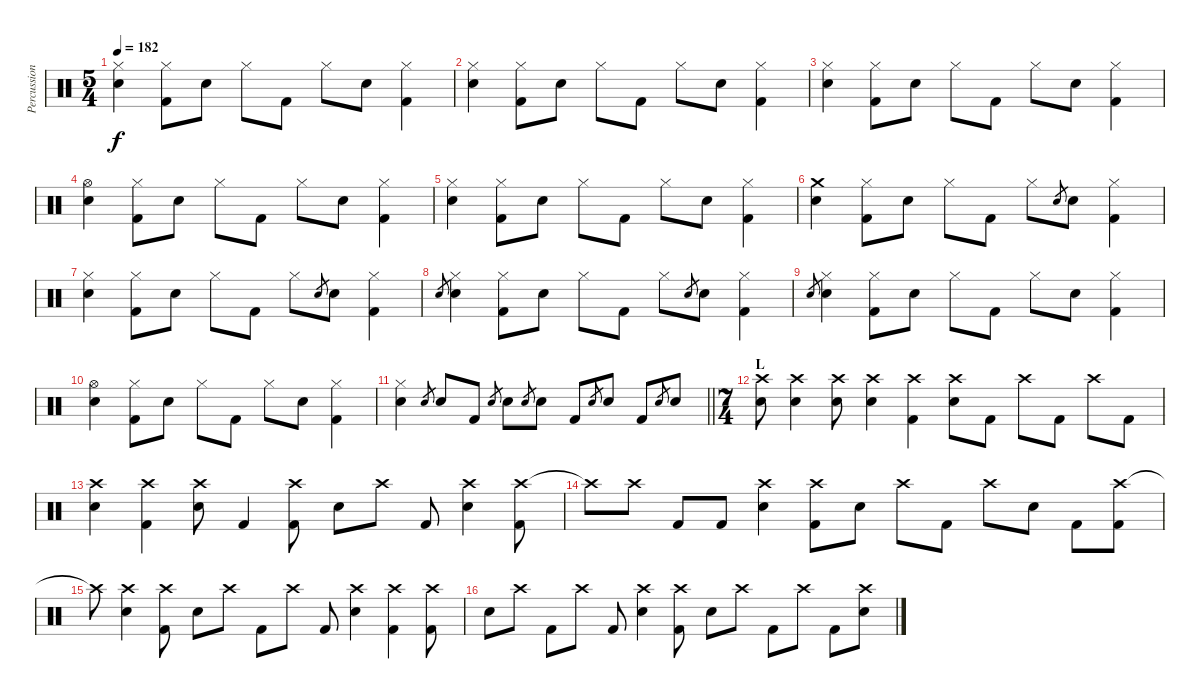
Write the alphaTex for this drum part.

\track ("Percussion" "Percussion") {instrument percussion}
\staff {score}
\articulation defaults
\ts (5 4)
\tempo 182
\clef neutral
\ks c
("Hi-Hat (closed)" "Electric Snare (hit)").4{dy f} ("Hi-Hat (closed)" "Kick (hit) 2").8 "Electric Snare (hit)".8 "Hi-Hat (closed)".8 "Kick (hit) 2".8 "Hi-Hat (closed)".8 "Electric Snare (hit)".8 ("Hi-Hat (closed)" "Kick (hit) 2").4 |
("Hi-Hat (closed)" "Electric Snare (hit)").4 ("Hi-Hat (closed)" "Kick (hit) 2").8 "Electric Snare (hit)".8 "Hi-Hat (closed)".8 "Kick (hit) 2".8 "Hi-Hat (closed)".8 "Electric Snare (hit)".8 ("Hi-Hat (closed)" "Kick (hit) 2").4 |
("Hi-Hat (closed)" "Electric Snare (hit)").4 ("Hi-Hat (closed)" "Kick (hit) 2").8 "Electric Snare (hit)".8 "Hi-Hat (closed)".8 "Kick (hit) 2".8 "Hi-Hat (closed)".8 "Electric Snare (hit)".8 ("Hi-Hat (closed)" "Kick (hit) 2").4 |
("Hi-Hat (open)" "Electric Snare (hit)").4 ("Hi-Hat (closed)" "Kick (hit) 2").8 "Electric Snare (hit)".8 "Hi-Hat (closed)".8 "Kick (hit) 2".8 "Hi-Hat (closed)".8 "Electric Snare (hit)".8 ("Hi-Hat (closed)" "Kick (hit) 2").4 |
("Hi-Hat (closed)" "Electric Snare (hit)").4 ("Hi-Hat (closed)" "Kick (hit) 2").8 "Electric Snare (hit)".8 "Hi-Hat (closed)".8 "Kick (hit) 2".8 "Hi-Hat (closed)".8 "Electric Snare (hit)".8 ("Hi-Hat (closed)" "Kick (hit) 2").4 |
("Crash medium (hit)" "Electric Snare (hit)").4 ("Hi-Hat (closed)" "Kick (hit) 2").8 "Electric Snare (hit)".8 "Hi-Hat (closed)".8 "Kick (hit) 2".8 "Hi-Hat (closed)".8 "Electric Snare (hit)".8{gr} "Electric Snare (hit)".8 ("Hi-Hat (closed)" "Kick (hit) 2").4 |
("Hi-Hat (closed)" "Electric Snare (hit)").4 ("Hi-Hat (closed)" "Kick (hit) 2").8 "Electric Snare (hit)".8 "Hi-Hat (closed)".8 "Kick (hit) 2".8 "Hi-Hat (closed)".8 "Electric Snare (hit)".8{gr} "Electric Snare (hit)".8 ("Hi-Hat (closed)" "Kick (hit) 2").4 |
"Electric Snare (hit)".8{gr} ("Hi-Hat (closed)" "Electric Snare (hit)").4 ("Hi-Hat (closed)" "Kick (hit) 2").8 "Electric Snare (hit)".8 "Hi-Hat (closed)".8 "Kick (hit) 2".8 "Hi-Hat (closed)".8 "Electric Snare (hit)".8{gr} "Electric Snare (hit)".8 ("Hi-Hat (closed)" "Kick (hit) 2").4 |
"Electric Snare (hit)".8{gr} ("Hi-Hat (closed)" "Electric Snare (hit)").4 ("Hi-Hat (closed)" "Kick (hit) 2").8 "Electric Snare (hit)".8 "Hi-Hat (closed)".8 "Kick (hit) 2".8 "Hi-Hat (closed)".8 "Electric Snare (hit)".8 ("Hi-Hat (closed)" "Kick (hit) 2").4 |
("Hi-Hat (open)" "Electric Snare (hit)").4 ("Hi-Hat (closed)" "Kick (hit) 2").8 "Electric Snare (hit)".8 "Hi-Hat (closed)".8 "Kick (hit) 2".8 "Hi-Hat (closed)".8 "Electric Snare (hit)".8 ("Hi-Hat (closed)" "Kick (hit) 2").4 |
\barLineRight lightlight
("Hi-Hat (closed)" "Electric Snare (hit)").4 "Electric Snare (hit)".8{gr} "Electric Snare (hit)".8 "Kick (hit) 2".8 "Electric Snare (hit)".8{gr} "Electric Snare (hit)".8 "Electric Snare (hit)".8{gr} "Electric Snare (hit)".8 "Kick (hit) 2".8 "Electric Snare (hit)".8{gr} "Electric Snare (hit)".8 "Kick (hit) 2".8 "Electric Snare (hit)".8{gr} "Electric Snare (hit)".8 |
\ts (7 4)
\section ("" "L")
("Crash high (hit)" "Electric Snare (hit)").8 ("Crash high (hit)" "Electric Snare (hit)").4 ("Crash high (hit)" "Electric Snare (hit)").8 ("Crash high (hit)" "Electric Snare (hit)").4 ("Crash high (hit)" "Kick (hit) 2").4 ("Crash high (hit)" "Electric Snare (hit)").8 "Kick (hit) 2".8 "Crash high (hit)".8 "Kick (hit) 2".8 "Crash high (hit)".8 "Kick (hit) 2".8 |
("Crash high (hit)" "Electric Snare (hit)").4 ("Crash high (hit)" "Kick (hit) 2").4 ("Crash high (hit)" "Electric Snare (hit)").8 "Kick (hit) 2".4 ("Crash high (hit)" "Kick (hit) 2").8 "Electric Snare (hit)".8 "Crash high (hit)".8 "Kick (hit) 2".8 ("Crash high (hit)" "Electric Snare (hit)").4 ("Crash high (hit)" "Kick (hit) 2").8 |
"Crash high (hit)"{t}.8 "Crash high (hit)".8 "Kick (hit) 2".8 "Kick (hit) 2".8 ("Crash high (hit)" "Electric Snare (hit)").4 ("Crash high (hit)" "Kick (hit) 2").8 "Electric Snare (hit)".8 "Crash high (hit)".8 "Kick (hit) 2".8 "Crash high (hit)".8 "Electric Snare (hit)".8 "Kick (hit) 2".8 ("Crash high (hit)" "Kick (hit) 2").8 |
"Crash high (hit)"{t}.8 ("Crash high (hit)" "Electric Snare (hit)").4 ("Crash high (hit)" "Kick (hit) 2").8 "Electric Snare (hit)".8 "Crash high (hit)".8 "Kick (hit) 2".8 "Crash high (hit)".8 "Kick (hit) 2".8 ("Crash high (hit)" "Electric Snare (hit)").4 ("Crash high (hit)" "Kick (hit) 2").4 ("Crash high (hit)" "Kick (hit) 2").8 |
"Electric Snare (hit)".8 "Crash high (hit)".8 "Kick (hit) 2".8 "Crash high (hit)".8 "Kick (hit) 2".8 ("Crash high (hit)" "Electric Snare (hit)").4 ("Crash high (hit)" "Kick (hit) 2").8 "Electric Snare (hit)".8 "Crash high (hit)".8 "Kick (hit) 2".8 "Crash high (hit)".8 "Kick (hit) 2".8 ("Crash high (hit)" "Electric Snare (hit)").8
